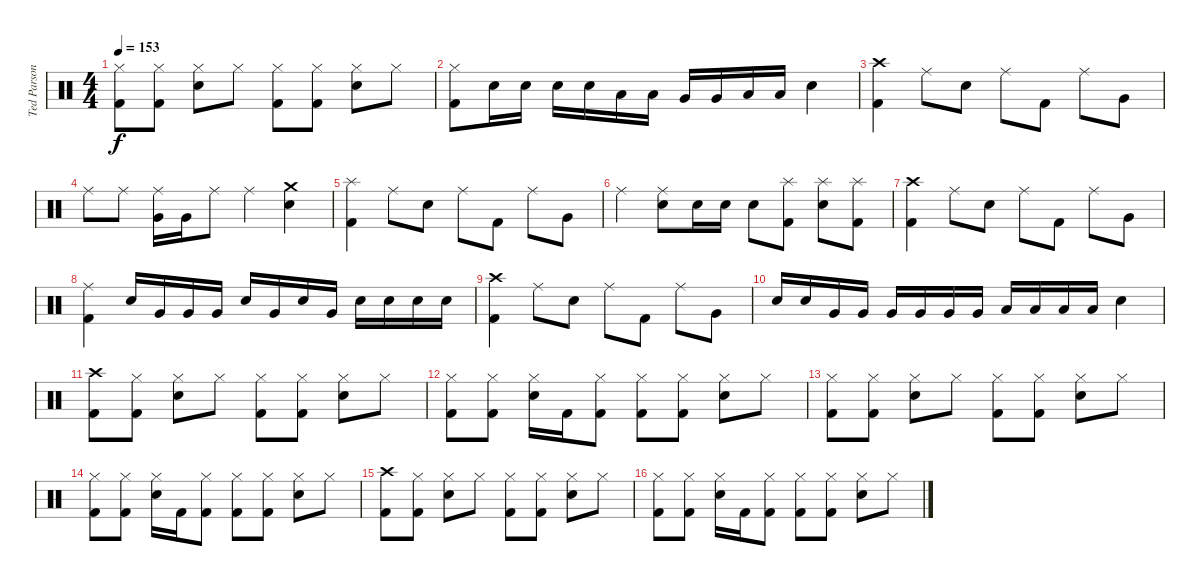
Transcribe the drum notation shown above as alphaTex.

\track ("Ted Parsons" "Ted Parson") {instrument percussion}
\staff {score}
\articulation defaults
\ts (4 4)
\tempo 153
\clef neutral
\ks c
("Hi-Hat (closed)" "Kick (hit) 2").8{dy f} ("Hi-Hat (closed)" "Kick (hit) 2").8 ("Hi-Hat (closed)" "Electric Snare (hit)").8 "Hi-Hat (closed)".8 ("Hi-Hat (closed)" "Kick (hit) 2").8 ("Hi-Hat (closed)" "Kick (hit) 2").8 ("Hi-Hat (closed)" "Electric Snare (hit)").8 "Hi-Hat (closed)".8 |
("Hi-Hat (closed)" "Kick (hit) 2").8 "Electric Snare (hit)".16 "Electric Snare (hit)".16 "Electric Snare (hit)".16 "Electric Snare (hit)".16 "Low Tom (hit)".16 "Low Tom (hit)".16 "Very Low Tom (hit)".16 "Very Low Tom (hit)".16 "Low Floor Tom (hit)".16 "Low Floor Tom (hit)".16 "Electric Snare (hit)".4 |
("Crash high (hit)" "Kick (hit) 2").4 "Ride (middle)".8 "Electric Snare (hit)".8 "Ride (middle)".8 "Kick (hit) 2".8 "Ride (middle)".8 "Very Low Tom (hit)".8 |
"Ride (middle)".8 "Ride (middle)".8 ("Ride (middle)" "Very Low Tom (hit)").16 "Very Low Tom (hit)".16 "Ride (middle)".8 "Ride (middle)".4 ("Crash medium (hit)" "Electric Snare (hit)").4 |
("Splash (hit)" "Kick (hit) 2").4 "Ride (middle)".8 "Electric Snare (hit)".8 "Ride (middle)".8 "Kick (hit) 2".8 "Ride (middle)".8 "Very Low Tom (hit)".8 |
"Ride (middle)".4 ("Ride (middle)" "Electric Snare (hit)").8 "Electric Snare (hit)".16 "Electric Snare (hit)".16 "Electric Snare (hit)".8 ("Splash (hit)" "Kick (hit) 2").8 ("Splash (hit)" "Electric Snare (hit)").8 ("Splash (hit)" "Kick (hit) 2").8 |
("Crash high (hit)" "Kick (hit) 2").4 "Ride (middle)".8 "Electric Snare (hit)".8 "Ride (middle)".8 "Kick (hit) 2".8 "Ride (middle)".8 "Very Low Tom (hit)".8 |
("Ride (middle)" "Kick (hit) 2").4 "Electric Snare (hit)".16 "Very Low Tom (hit)".16 "Very Low Tom (hit)".16 "Very Low Tom (hit)".16 "Electric Snare (hit)".16 "Very Low Tom (hit)".16 "Electric Snare (hit)".16 "Very Low Tom (hit)".16 "Electric Snare (hit)".16 "Electric Snare (hit)".16 "Electric Snare (hit)".16 "Electric Snare (hit)".16 |
("Crash high (hit)" "Kick (hit) 2").4 "Ride (middle)".8 "Electric Snare (hit)".8 "Ride (middle)".8 "Kick (hit) 2".8 "Ride (middle)".8 "Very Low Tom (hit)".8 |
"Electric Snare (hit)".16 "Electric Snare (hit)".16 "Very Low Tom (hit)".16 "Very Low Tom (hit)".16 "Very Low Tom (hit)".16 "Very Low Tom (hit)".16 "Very Low Tom (hit)".16 "Very Low Tom (hit)".16 "Low Floor Tom (hit)".16 "Low Floor Tom (hit)".16 "Low Floor Tom (hit)".16 "Low Floor Tom (hit)".16 "Electric Snare (hit)".4 |
("Crash high (hit)" "Kick (hit) 2").8 ("Hi-Hat (closed)" "Kick (hit) 2").8 ("Hi-Hat (closed)" "Electric Snare (hit)").8 "Hi-Hat (closed)".8 ("Hi-Hat (closed)" "Kick (hit) 2").8 ("Hi-Hat (closed)" "Kick (hit) 2").8 ("Hi-Hat (closed)" "Electric Snare (hit)").8 "Hi-Hat (closed)".8 |
("Hi-Hat (closed)" "Kick (hit) 2").8 ("Hi-Hat (closed)" "Kick (hit) 2").8 ("Hi-Hat (closed)" "Electric Snare (hit)").16 "Kick (hit) 2".16 ("Hi-Hat (closed)" "Kick (hit) 2").8 ("Hi-Hat (closed)" "Kick (hit) 2").8 ("Hi-Hat (closed)" "Kick (hit) 2").8 ("Hi-Hat (closed)" "Electric Snare (hit)").8 "Hi-Hat (closed)".8 |
("Hi-Hat (closed)" "Kick (hit) 2").8 ("Hi-Hat (closed)" "Kick (hit) 2").8 ("Hi-Hat (closed)" "Electric Snare (hit)").8 "Hi-Hat (closed)".8 ("Hi-Hat (closed)" "Kick (hit) 2").8 ("Hi-Hat (closed)" "Kick (hit) 2").8 ("Hi-Hat (closed)" "Electric Snare (hit)").8 "Hi-Hat (closed)".8 |
("Hi-Hat (closed)" "Kick (hit) 2").8 ("Hi-Hat (closed)" "Kick (hit) 2").8 ("Hi-Hat (closed)" "Electric Snare (hit)").16 "Kick (hit) 2".16 ("Hi-Hat (closed)" "Kick (hit) 2").8 ("Hi-Hat (closed)" "Kick (hit) 2").8 ("Hi-Hat (closed)" "Kick (hit) 2").8 ("Hi-Hat (closed)" "Electric Snare (hit)").8 "Hi-Hat (closed)".8 |
("Crash high (hit)" "Kick (hit) 2").8 ("Hi-Hat (closed)" "Kick (hit) 2").8 ("Hi-Hat (closed)" "Electric Snare (hit)").8 "Hi-Hat (closed)".8 ("Hi-Hat (closed)" "Kick (hit) 2").8 ("Hi-Hat (closed)" "Kick (hit) 2").8 ("Hi-Hat (closed)" "Electric Snare (hit)").8 "Hi-Hat (closed)".8 |
("Hi-Hat (closed)" "Kick (hit) 2").8 ("Hi-Hat (closed)" "Kick (hit) 2").8 ("Hi-Hat (closed)" "Electric Snare (hit)").16 "Kick (hit) 2".16 ("Hi-Hat (closed)" "Kick (hit) 2").8 ("Hi-Hat (closed)" "Kick (hit) 2").8 ("Hi-Hat (closed)" "Kick (hit) 2").8 ("Hi-Hat (closed)" "Electric Snare (hit)").8 "Hi-Hat (closed)".8
